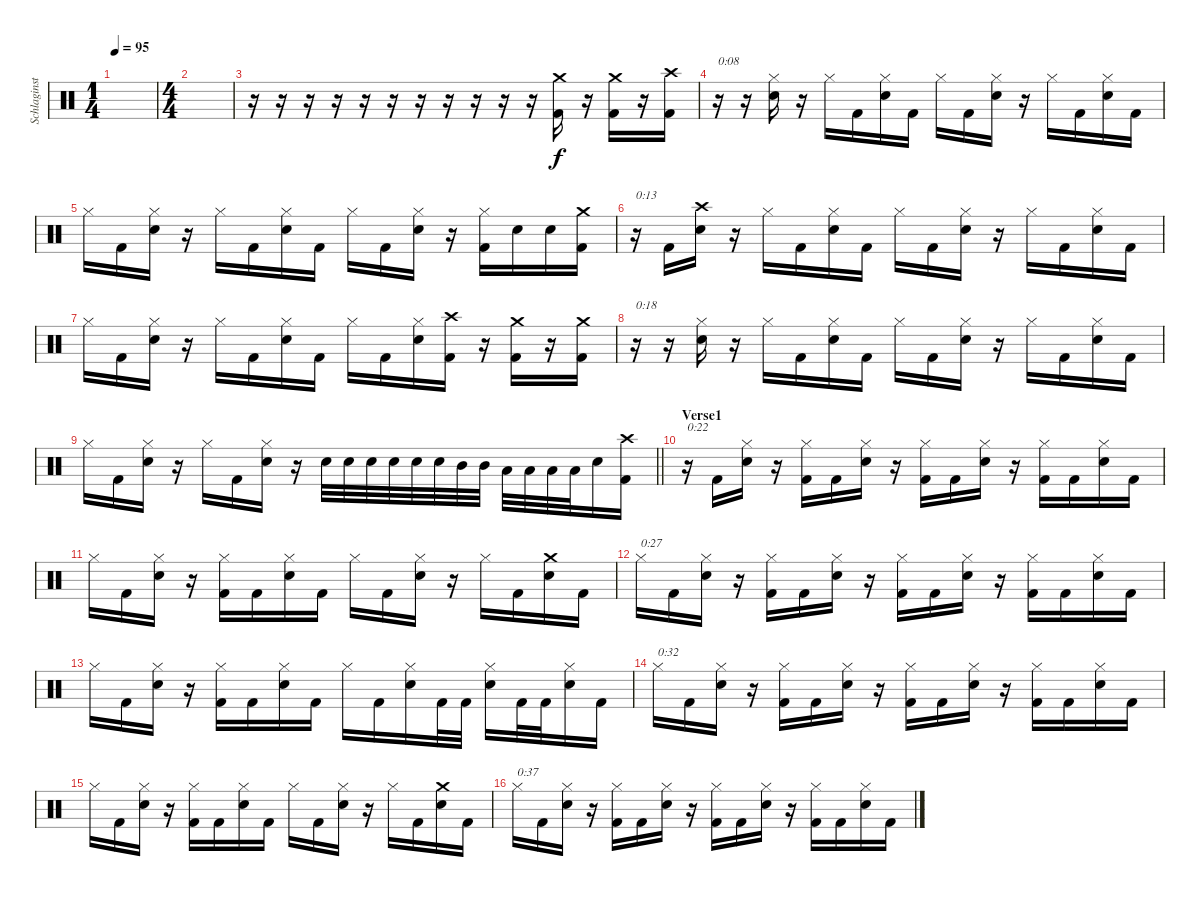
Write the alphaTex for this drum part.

\track ("Schlaginstrumente - Auswahl" "Schlaginst") {instrument percussion}
\staff {score}
\articulation defaults
\ts (1 4)
\tempo 95
\clef neutral
\ks c
|
\ts (4 4)
|
r.16 r.16 r.16 r.16 r.16 r.16 r.16 r.16 r.16 r.16 r.16 ("Crash medium (hit)" "Kick (hit) 2").16 r.16 ("Crash medium (hit)" "Kick (hit) 2").16 r.16 ("Crash high (hit)" "Kick (hit) 2").16 |
r.16{txt "0:08"} r.16 ("Hi-Hat (closed)" "Electric Snare (hit)").16 r.16 "Hi-Hat (closed)".16 "Kick (hit) 2".16 ("Hi-Hat (closed)" "Electric Snare (hit)").16 "Kick (hit) 2".16 "Hi-Hat (closed)".16 "Kick (hit) 2".16 ("Hi-Hat (closed)" "Electric Snare (hit)").16 r.16 "Hi-Hat (closed)".16 "Kick (hit) 2".16 ("Hi-Hat (closed)" "Electric Snare (hit)").16 "Kick (hit) 2".16 |
"Hi-Hat (closed)".16 "Kick (hit) 2".16 ("Hi-Hat (closed)" "Electric Snare (hit)").16 r.16 "Hi-Hat (closed)".16 "Kick (hit) 2".16 ("Hi-Hat (closed)" "Electric Snare (hit)").16 "Kick (hit) 2".16 "Hi-Hat (closed)".16 "Kick (hit) 2".16 ("Hi-Hat (closed)" "Electric Snare (hit)").16 r.16 ("Hi-Hat (closed)" "Kick (hit) 2").16 "Electric Snare (hit)".16 "Electric Snare (hit)".16 ("Crash medium (hit)" "Kick (hit) 2").16 |
r.16{txt "0:13"} "Kick (hit) 2".16 ("Crash high (hit)" "Electric Snare (hit)").16 r.16 "Hi-Hat (closed)".16 "Kick (hit) 2".16 ("Hi-Hat (closed)" "Electric Snare (hit)").16 "Kick (hit) 2".16 "Hi-Hat (closed)".16 "Kick (hit) 2".16 ("Hi-Hat (closed)" "Electric Snare (hit)").16 r.16 "Hi-Hat (closed)".16 "Kick (hit) 2".16 ("Hi-Hat (closed)" "Electric Snare (hit)").16 "Kick (hit) 2".16 |
"Hi-Hat (closed)".16 "Kick (hit) 2".16 ("Hi-Hat (closed)" "Electric Snare (hit)").16 r.16 "Hi-Hat (closed)".16 "Kick (hit) 2".16 ("Hi-Hat (closed)" "Electric Snare (hit)").16 "Kick (hit) 2".16 "Hi-Hat (closed)".16 "Kick (hit) 2".16 ("Hi-Hat (closed)" "Electric Snare (hit)").16 ("Crash high (hit)" "Kick (hit) 2").16 r.16 ("Crash medium (hit)" "Kick (hit) 2").16 r.16 ("Crash medium (hit)" "Kick (hit) 2").16 |
r.16{txt "0:18"} r.16 ("Hi-Hat (closed)" "Electric Snare (hit)").16 r.16 "Hi-Hat (closed)".16 "Kick (hit) 2".16 ("Hi-Hat (closed)" "Electric Snare (hit)").16 "Kick (hit) 2".16 "Hi-Hat (closed)".16 "Kick (hit) 2".16 ("Hi-Hat (closed)" "Electric Snare (hit)").16 r.16 "Hi-Hat (closed)".16 "Kick (hit) 2".16 ("Hi-Hat (closed)" "Electric Snare (hit)").16 "Kick (hit) 2".16 |
\barLineRight lightlight "Hi-Hat (closed)".16 "Kick (hit) 2".16
("Hi-Hat (closed)" "Electric Snare (hit)").16 r.16 "Hi-Hat (closed)".16 "Kick (hit) 2".16 ("Hi-Hat (closed)" "Electric Snare (hit)").16 r.16 "Electric Snare (hit)".32 "Electric Snare (hit)".32 "Electric Snare (hit)".32 "Electric Snare (hit)".32 "Electric Snare (hit)".32 "Electric Snare (hit)".32 "Mid Tom (hit)".32 "Mid Tom (hit)".32 "Low Tom (hit)".32 "Low Tom (hit)".32 "Low Tom (hit)".32 "Low Tom (hit)".32 "Electric Snare (hit)".16 ("Crash high (hit)" "Kick (hit) 2").16 |
\section ("" "Verse1")
r.16{txt "0:22"} "Kick (hit) 2".16 ("Hi-Hat (closed)" "Electric Snare (hit)").16 r.16 ("Hi-Hat (closed)" "Kick (hit) 2").16 "Kick (hit) 2".16 ("Hi-Hat (closed)" "Electric Snare (hit)").16 r.16 ("Hi-Hat (closed)" "Kick (hit) 2").16 "Kick (hit) 2".16 ("Hi-Hat (closed)" "Electric Snare (hit)").16 r.16 ("Hi-Hat (closed)" "Kick (hit) 2").16 "Kick (hit) 2".16 ("Hi-Hat (closed)" "Electric Snare (hit)").16 "Kick (hit) 2".16 |
"Hi-Hat (closed)".16 "Kick (hit) 2".16 ("Hi-Hat (closed)" "Electric Snare (hit)").16 r.16 ("Hi-Hat (closed)" "Kick (hit) 2").16 "Kick (hit) 2".16 ("Hi-Hat (closed)" "Electric Snare (hit)").16 "Kick (hit) 2".16 "Hi-Hat (closed)".16 "Kick (hit) 2".16 ("Hi-Hat (closed)" "Electric Snare (hit)").16 r.16 "Hi-Hat (closed)".16 "Kick (hit) 2".16 ("Crash medium (hit)" "Electric Snare (hit)").16 "Kick (hit) 2".16 |
"Hi-Hat (closed)".16{txt "0:27"} "Kick (hit) 2".16 ("Hi-Hat (closed)" "Electric Snare (hit)").16 r.16 ("Hi-Hat (closed)" "Kick (hit) 2").16 "Kick (hit) 2".16 ("Hi-Hat (closed)" "Electric Snare (hit)").16 r.16 ("Hi-Hat (closed)" "Kick (hit) 2").16 "Kick (hit) 2".16 ("Hi-Hat (closed)" "Electric Snare (hit)").16 r.16 ("Hi-Hat (closed)" "Kick (hit) 2").16 "Kick (hit) 2".16 ("Hi-Hat (closed)" "Electric Snare (hit)").16 "Kick (hit) 2".16 |
"Hi-Hat (closed)".16 "Kick (hit) 2".16 ("Hi-Hat (closed)" "Electric Snare (hit)").16 r.16 ("Hi-Hat (closed)" "Kick (hit) 2").16 "Kick (hit) 2".16 ("Hi-Hat (closed)" "Electric Snare (hit)").16 "Kick (hit) 2".16 "Hi-Hat (closed)".16 "Kick (hit) 2".16 ("Hi-Hat (closed)" "Electric Snare (hit)").16 "Kick (hit) 2".32 "Kick (hit) 2".32 ("Hi-Hat (closed)" "Electric Snare (hit)").16 "Kick (hit) 2".32 "Kick (hit) 2".32 ("Hi-Hat (closed)" "Electric Snare (hit)").16 "Kick (hit) 2".16 |
"Hi-Hat (closed)".16{txt "0:32"} "Kick (hit) 2".16 ("Hi-Hat (closed)" "Electric Snare (hit)").16 r.16 ("Hi-Hat (closed)" "Kick (hit) 2").16 "Kick (hit) 2".16 ("Hi-Hat (closed)" "Electric Snare (hit)").16 r.16 ("Hi-Hat (closed)" "Kick (hit) 2").16 "Kick (hit) 2".16 ("Hi-Hat (closed)" "Electric Snare (hit)").16 r.16 ("Hi-Hat (closed)" "Kick (hit) 2").16 "Kick (hit) 2".16 ("Hi-Hat (closed)" "Electric Snare (hit)").16 "Kick (hit) 2".16 |
"Hi-Hat (closed)".16 "Kick (hit) 2".16 ("Hi-Hat (closed)" "Electric Snare (hit)").16 r.16 ("Hi-Hat (closed)" "Kick (hit) 2").16 "Kick (hit) 2".16 ("Hi-Hat (closed)" "Electric Snare (hit)").16 "Kick (hit) 2".16 "Hi-Hat (closed)".16 "Kick (hit) 2".16 ("Hi-Hat (closed)" "Electric Snare (hit)").16 r.16 "Hi-Hat (closed)".16 "Kick (hit) 2".16 ("Crash medium (hit)" "Electric Snare (hit)").16 "Kick (hit) 2".16 |
"Hi-Hat (closed)".16{txt "0:37"} "Kick (hit) 2".16 ("Hi-Hat (closed)" "Electric Snare (hit)").16 r.16 ("Hi-Hat (closed)" "Kick (hit) 2").16 "Kick (hit) 2".16 ("Hi-Hat (closed)" "Electric Snare (hit)").16 r.16 ("Hi-Hat (closed)" "Kick (hit) 2").16 "Kick (hit) 2".16 ("Hi-Hat (closed)" "Electric Snare (hit)").16 r.16 ("Hi-Hat (closed)" "Kick (hit) 2").16 "Kick (hit) 2".16 ("Hi-Hat (closed)" "Electric Snare (hit)").16 "Kick (hit) 2".16
